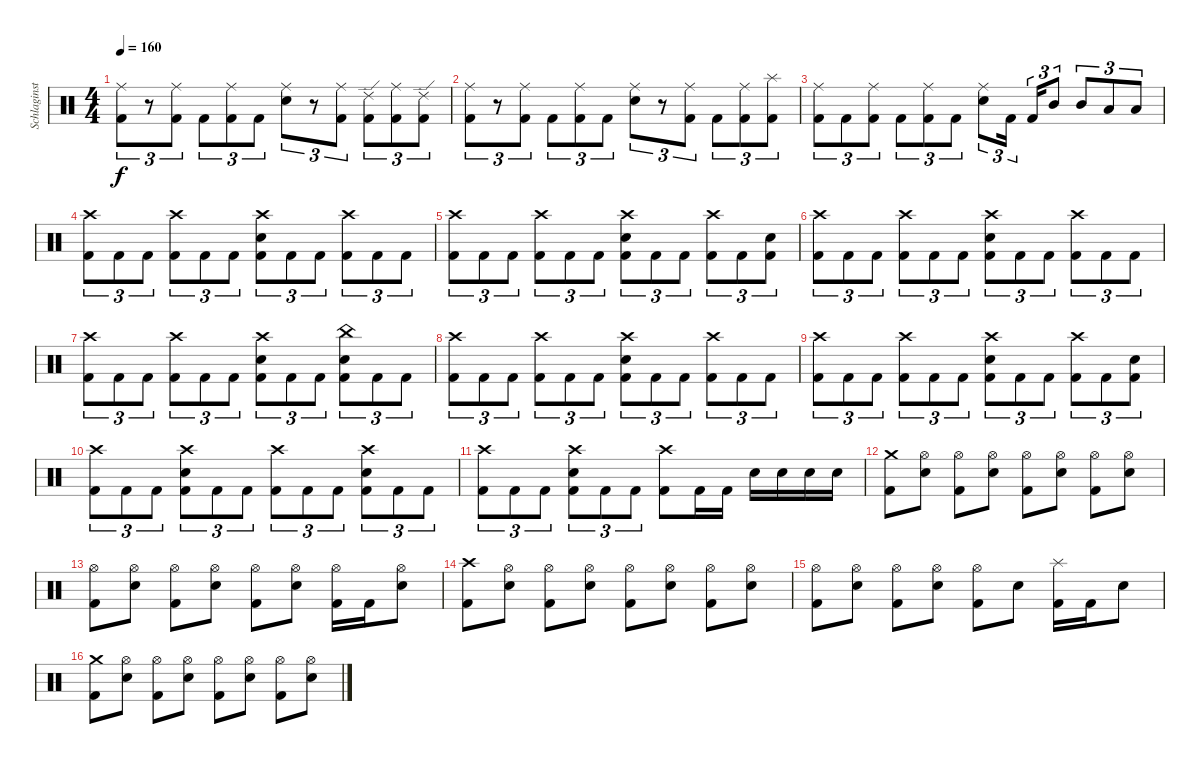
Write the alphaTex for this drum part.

\track ("Schlaginstrumente - Auswahl" "Schlaginst") {instrument percussion}
\staff {score}
\articulation defaults
\ts (4 4)
\tempo 160
\clef neutral
\ks c
("Ride (middle)" "Kick (hit) 2").8{tu (3 2) dy f} r.8{tu (3 2)} ("Ride (middle)" "Kick (hit) 2").8{tu (3 2)} "Kick (hit) 2".8{tu (3 2)} ("Ride (middle)" "Kick (hit) 2").8{tu (3 2)} "Kick (hit) 2".8{tu (3 2)} ("Ride (middle)" "Snare (hit) 2").8{tu (3 2)} r.8{tu (3 2)} ("Ride (middle)" "Kick (hit) 2").8{tu (3 2)} ("Ride (edge) 2" "Kick (hit) 2").8{tu (3 2)} ("Ride (middle)" "Kick (hit) 2").8{tu (3 2)} ("Ride (edge) 2" "Kick (hit) 2").8{tu (3 2)} |
("Ride (middle)" "Kick (hit) 2").8{tu (3 2)} r.8{tu (3 2)} ("Ride (middle)" "Kick (hit) 2").8{tu (3 2)} "Kick (hit) 2".8{tu (3 2)} ("Ride (middle)" "Kick (hit) 2").8{tu (3 2)} "Kick (hit) 2".8{tu (3 2)} ("Ride (middle)" "Snare (hit) 2").8{tu (3 2)} r.8{tu (3 2)} ("Ride (middle)" "Kick (hit) 2").8{tu (3 2)} "Kick (hit) 2".8{tu (3 2)} ("Ride (middle)" "Kick (hit) 2").8{tu (3 2)} ("Splash (hit)" "Kick (hit) 2").8{tu (3 2)} |
("Ride (middle)" "Kick (hit) 2").8{tu (3 2)} "Kick (hit) 2".8{tu (3 2)} ("Ride (middle)" "Kick (hit) 2").8{tu (3 2)} "Kick (hit) 2".8{tu (3 2)} ("Ride (middle)" "Kick (hit) 2").8{tu (3 2)} "Kick (hit) 2".8{tu (3 2)} ("Ride (middle)" "Snare (hit) 2").8{tu (3 2)} "Kick (hit) 2".16{tu (3 2) beam splitsecondary} "Kick (hit) 2".16{tu (3 2)} "Mid Tom (hit)".8{tu (3 2)} "Mid Tom (hit)".8{tu (3 2)} "Low Tom (hit)".8{tu (3 2)} "Low Tom (hit)".8{tu (3 2)} |
("Crash high (hit)" "Kick (hit) 2").8{tu (3 2)} "Kick (hit) 2".8{tu (3 2)} "Kick (hit) 2".8{tu (3 2)} ("Crash high (hit)" "Kick (hit) 2").8{tu (3 2)} "Kick (hit) 2".8{tu (3 2)} "Kick (hit) 2".8{tu (3 2)} ("Crash high (hit)" "Snare (hit) 2" "Kick (hit) 2").8{tu (3 2)} "Kick (hit) 2".8{tu (3 2)} "Kick (hit) 2".8{tu (3 2)} ("Crash high (hit)" "Kick (hit) 2").8{tu (3 2)} "Kick (hit) 2".8{tu (3 2)} "Kick (hit) 2".8{tu (3 2)} |
("Crash high (hit)" "Kick (hit) 2").8{tu (3 2)} "Kick (hit) 2".8{tu (3 2)} "Kick (hit) 2".8{tu (3 2)} ("Crash high (hit)" "Kick (hit) 2").8{tu (3 2)} "Kick (hit) 2".8{tu (3 2)} "Kick (hit) 2".8{tu (3 2)} ("Crash high (hit)" "Snare (hit) 2" "Kick (hit) 2").8{tu (3 2)} "Kick (hit) 2".8{tu (3 2)} "Kick (hit) 2".8{tu (3 2)} ("Crash high (hit)" "Kick (hit) 2").8{tu (3 2)} "Kick (hit) 2".8{tu (3 2)} ("Snare (hit) 2" "Kick (hit) 2").8{tu (3 2)} |
("Crash high (hit)" "Kick (hit) 2").8{tu (3 2)} "Kick (hit) 2".8{tu (3 2)} "Kick (hit) 2".8{tu (3 2)} ("Crash high (hit)" "Kick (hit) 2").8{tu (3 2)} "Kick (hit) 2".8{tu (3 2)} "Kick (hit) 2".8{tu (3 2)} ("Crash high (hit)" "Snare (hit) 2" "Kick (hit) 2").8{tu (3 2)} "Kick (hit) 2".8{tu (3 2)} "Kick (hit) 2".8{tu (3 2)} ("Crash high (hit)" "Kick (hit) 2").8{tu (3 2)} "Kick (hit) 2".8{tu (3 2)} "Kick (hit) 2".8{tu (3 2)} |
("Crash high (hit)" "Kick (hit) 2").8{tu (3 2)} "Kick (hit) 2".8{tu (3 2)} "Kick (hit) 2".8{tu (3 2)} ("Crash high (hit)" "Kick (hit) 2").8{tu (3 2)} "Kick (hit) 2".8{tu (3 2)} "Kick (hit) 2".8{tu (3 2)} ("Crash high (hit)" "Snare (hit) 2" "Kick (hit) 2").8{tu (3 2)} "Kick (hit) 2".8{tu (3 2)} "Kick (hit) 2".8{tu (3 2)} ("China (hit)" "Snare (hit) 2" "Kick (hit) 2").8{tu (3 2)} "Kick (hit) 2".8{tu (3 2)} "Kick (hit) 2".8{tu (3 2)} |
("Crash high (hit)" "Kick (hit) 2").8{tu (3 2)} "Kick (hit) 2".8{tu (3 2)} "Kick (hit) 2".8{tu (3 2)} ("Crash high (hit)" "Kick (hit) 2").8{tu (3 2)} "Kick (hit) 2".8{tu (3 2)} "Kick (hit) 2".8{tu (3 2)} ("Crash high (hit)" "Snare (hit) 2" "Kick (hit) 2").8{tu (3 2)} "Kick (hit) 2".8{tu (3 2)} "Kick (hit) 2".8{tu (3 2)} ("Crash high (hit)" "Kick (hit) 2").8{tu (3 2)} "Kick (hit) 2".8{tu (3 2)} "Kick (hit) 2".8{tu (3 2)} |
("Crash high (hit)" "Kick (hit) 2").8{tu (3 2)} "Kick (hit) 2".8{tu (3 2)} "Kick (hit) 2".8{tu (3 2)} ("Crash high (hit)" "Kick (hit) 2").8{tu (3 2)} "Kick (hit) 2".8{tu (3 2)} "Kick (hit) 2".8{tu (3 2)} ("Crash high (hit)" "Snare (hit) 2" "Kick (hit) 2").8{tu (3 2)} "Kick (hit) 2".8{tu (3 2)} "Kick (hit) 2".8{tu (3 2)} ("Crash high (hit)" "Kick (hit) 2").8{tu (3 2)} "Kick (hit) 2".8{tu (3 2)} ("Snare (hit) 2" "Kick (hit) 2").8{tu (3 2)} |
("Crash high (hit)" "Kick (hit) 2").8{tu (3 2)} "Kick (hit) 2".8{tu (3 2)} "Kick (hit) 2".8{tu (3 2)} ("Crash high (hit)" "Snare (hit) 2" "Kick (hit) 2").8{tu (3 2)} "Kick (hit) 2".8{tu (3 2)} "Kick (hit) 2".8{tu (3 2)} ("Crash high (hit)" "Kick (hit) 2").8{tu (3 2)} "Kick (hit) 2".8{tu (3 2)} "Kick (hit) 2".8{tu (3 2)} ("Crash high (hit)" "Snare (hit) 2" "Kick (hit) 2").8{tu (3 2)} "Kick (hit) 2".8{tu (3 2)} "Kick (hit) 2".8{tu (3 2)} |
("Crash high (hit)" "Kick (hit) 2").8{tu (3 2)} "Kick (hit) 2".8{tu (3 2)} "Kick (hit) 2".8{tu (3 2)} ("Crash high (hit)" "Snare (hit) 2" "Kick (hit) 2").8{tu (3 2)} "Kick (hit) 2".8{tu (3 2)} "Kick (hit) 2".8{tu (3 2)} ("Crash high (hit)" "Kick (hit) 2").8 "Kick (hit) 2".16 "Kick (hit) 2".16 "Snare (hit) 2".16 "Snare (hit) 2".16 "Snare (hit) 2".16 "Snare (hit) 2".16 |
("Crash medium (hit)" "Kick (hit) 2").8 ("Hi-Hat (open)" "Snare (hit) 2").8 ("Hi-Hat (open)" "Kick (hit) 2").8 ("Hi-Hat (open)" "Snare (hit) 2").8 ("Hi-Hat (open)" "Kick (hit) 2").8 ("Hi-Hat (open)" "Snare (hit) 2").8 ("Hi-Hat (open)" "Kick (hit) 2").8 ("Hi-Hat (open)" "Snare (hit) 2").8 |
("Hi-Hat (open)" "Kick (hit) 2").8 ("Hi-Hat (open)" "Snare (hit) 2").8 ("Hi-Hat (open)" "Kick (hit) 2").8 ("Hi-Hat (open)" "Snare (hit) 2").8 ("Hi-Hat (open)" "Kick (hit) 2").8 ("Hi-Hat (open)" "Snare (hit) 2").8 ("Hi-Hat (open)" "Kick (hit) 2").16 "Kick (hit) 2".16 ("Hi-Hat (open)" "Snare (hit) 2").8 |
("Crash high (hit)" "Kick (hit) 2").8 ("Hi-Hat (open)" "Snare (hit) 2").8 ("Hi-Hat (open)" "Kick (hit) 2").8 ("Hi-Hat (open)" "Snare (hit) 2").8 ("Hi-Hat (open)" "Kick (hit) 2").8 ("Hi-Hat (open)" "Snare (hit) 2").8 ("Hi-Hat (open)" "Kick (hit) 2").8 ("Hi-Hat (open)" "Snare (hit) 2").8 |
("Hi-Hat (open)" "Kick (hit) 2").8 ("Hi-Hat (open)" "Snare (hit) 2").8 ("Hi-Hat (open)" "Kick (hit) 2").8 ("Hi-Hat (open)" "Snare (hit) 2").8 ("Hi-Hat (open)" "Kick (hit) 2").8 "Snare (hit) 2".8 ("Splash (hit)" "Kick (hit) 2").16 "Kick (hit) 2".16 "Snare (hit) 2".8 |
("Crash medium (hit)" "Kick (hit) 2").8 ("Hi-Hat (open)" "Snare (hit) 2").8 ("Hi-Hat (open)" "Kick (hit) 2").8 ("Hi-Hat (open)" "Snare (hit) 2").8 ("Hi-Hat (open)" "Kick (hit) 2").8 ("Hi-Hat (open)" "Snare (hit) 2").8 ("Hi-Hat (open)" "Kick (hit) 2").8 ("Hi-Hat (open)" "Snare (hit) 2").8
